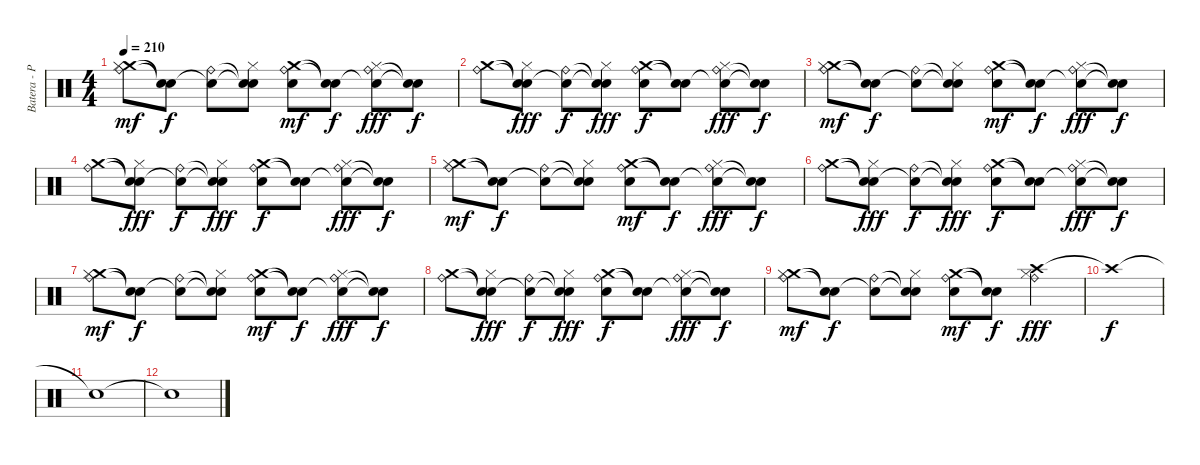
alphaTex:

\track ("Batera - Pelado" "Batera - P") {instrument percussion}
\staff {score}
\articulation defaults
\ts (4 4)
\tempo 210
\clef neutral
\ks c
("Crash medium (hit)" "Ride (bell)" "Hi-Hat (closed)").8{dy mf} ("Snare (hit)"{t} "Snare (hit)"{t}).8{dy f} ("Snare (hit)"{t} "Ride (bell)").8 ("Snare (hit)"{t} "Snare (hit)"{t} "Hi-Hat (closed)").8 ("Crash medium (hit)" "Ride (bell)" "Electric Snare (hit)").8{dy mf} ("Snare (hit)"{t} "Snare (hit)"{t}).8{dy f} ("Snare (hit)"{t} "Ride (bell)" "Hi-Hat (closed)").8{dy fff} ("Snare (hit)"{t} "Snare (hit)"{t}).8{dy f} |
("Crash medium (hit)" "Ride (bell)").8 ("Snare (hit)"{t} "Snare (hit)"{t} "Hi-Hat (closed)").8{dy fff} ("Snare (hit)"{t} "Ride (bell)").8{dy f} ("Snare (hit)"{t} "Snare (hit)"{t} "Hi-Hat (closed)").8{dy fff} ("Crash medium (hit)" "Ride (bell)" "Electric Snare (hit)").8{dy f} ("Snare (hit)"{t} "Snare (hit)"{t}).8 ("Snare (hit)"{t} "Ride (bell)" "Hi-Hat (closed)").8{dy fff} ("Snare (hit)"{t} "Snare (hit)"{t}).8{dy f} |
("Crash medium (hit)" "Ride (bell)" "Hi-Hat (closed)").8{dy mf} ("Snare (hit)"{t} "Snare (hit)"{t}).8{dy f} ("Snare (hit)"{t} "Ride (bell)").8 ("Snare (hit)"{t} "Snare (hit)"{t} "Hi-Hat (closed)").8 ("Crash medium (hit)" "Ride (bell)" "Electric Snare (hit)").8{dy mf} ("Snare (hit)"{t} "Snare (hit)"{t}).8{dy f} ("Snare (hit)"{t} "Ride (bell)" "Hi-Hat (closed)").8{dy fff} ("Snare (hit)"{t} "Snare (hit)"{t}).8{dy f} |
("Crash medium (hit)" "Ride (bell)").8 ("Snare (hit)"{t} "Snare (hit)"{t} "Hi-Hat (closed)").8{dy fff} ("Snare (hit)"{t} "Ride (bell)").8{dy f} ("Snare (hit)"{t} "Snare (hit)"{t} "Hi-Hat (closed)").8{dy fff} ("Crash medium (hit)" "Ride (bell)" "Electric Snare (hit)").8{dy f} ("Snare (hit)"{t} "Snare (hit)"{t}).8 ("Snare (hit)"{t} "Ride (bell)" "Hi-Hat (closed)").8{dy fff} ("Snare (hit)"{t} "Snare (hit)"{t}).8{dy f} |
("Crash medium (hit)" "Ride (bell)" "Hi-Hat (closed)").8{dy mf} ("Snare (hit)"{t} "Snare (hit)"{t}).8{dy f} ("Snare (hit)"{t} "Ride (bell)").8 ("Snare (hit)"{t} "Snare (hit)"{t} "Hi-Hat (closed)").8 ("Crash medium (hit)" "Ride (bell)" "Electric Snare (hit)").8{dy mf} ("Snare (hit)"{t} "Snare (hit)"{t}).8{dy f} ("Snare (hit)"{t} "Ride (bell)" "Hi-Hat (closed)").8{dy fff} ("Snare (hit)"{t} "Snare (hit)"{t}).8{dy f} |
("Crash medium (hit)" "Ride (bell)").8 ("Snare (hit)"{t} "Snare (hit)"{t} "Hi-Hat (closed)").8{dy fff} ("Snare (hit)"{t} "Ride (bell)").8{dy f} ("Snare (hit)"{t} "Snare (hit)"{t} "Hi-Hat (closed)").8{dy fff} ("Crash medium (hit)" "Ride (bell)" "Electric Snare (hit)").8{dy f} ("Snare (hit)"{t} "Snare (hit)"{t}).8 ("Snare (hit)"{t} "Ride (bell)" "Hi-Hat (closed)").8{dy fff} ("Snare (hit)"{t} "Snare (hit)"{t}).8{dy f} |
("Crash medium (hit)" "Ride (bell)" "Hi-Hat (closed)").8{dy mf} ("Snare (hit)"{t} "Snare (hit)"{t}).8{dy f} ("Snare (hit)"{t} "Ride (bell)").8 ("Snare (hit)"{t} "Snare (hit)"{t} "Hi-Hat (closed)").8 ("Crash medium (hit)" "Ride (bell)" "Electric Snare (hit)").8{dy mf} ("Snare (hit)"{t} "Snare (hit)"{t}).8{dy f} ("Snare (hit)"{t} "Ride (bell)" "Hi-Hat (closed)").8{dy fff} ("Snare (hit)"{t} "Snare (hit)"{t}).8{dy f} |
("Crash medium (hit)" "Ride (bell)").8 ("Snare (hit)"{t} "Snare (hit)"{t} "Hi-Hat (closed)").8{dy fff} ("Snare (hit)"{t} "Ride (bell)").8{dy f} ("Snare (hit)"{t} "Snare (hit)"{t} "Hi-Hat (closed)").8{dy fff} ("Crash medium (hit)" "Ride (bell)" "Electric Snare (hit)").8{dy f} ("Snare (hit)"{t} "Snare (hit)"{t}).8 ("Snare (hit)"{t} "Ride (bell)" "Hi-Hat (closed)").8{dy fff} ("Snare (hit)"{t} "Snare (hit)"{t}).8{dy f} |
("Crash medium (hit)" "Ride (bell)" "Hi-Hat (closed)").8{dy mf} ("Snare (hit)"{t} "Snare (hit)"{t}).8{dy f} ("Snare (hit)"{t} "Ride (bell)").8 ("Snare (hit)"{t} "Snare (hit)"{t} "Hi-Hat (closed)").8 ("Crash medium (hit)" "Ride (bell)" "Electric Snare (hit)").8{dy mf} ("Snare (hit)"{t} "Snare (hit)"{t}).8{dy f} ("Crash high (hit)" "Ride (bell)" "Hi-Hat (closed)").4{dy fff} |
"Crash high (hit)"{t}.1{dy f} |
"Snare (hit)"{t}.1 |
"Snare (hit)"{t}.1
